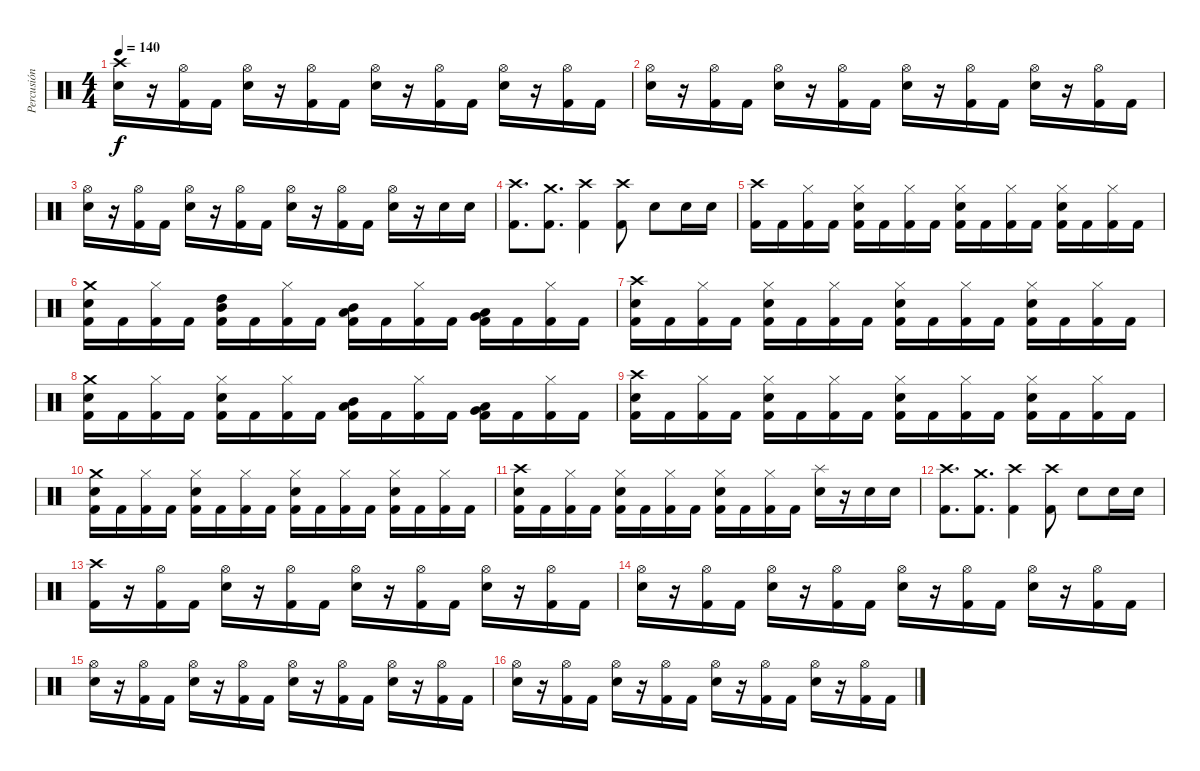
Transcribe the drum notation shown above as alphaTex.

\track ("Percusión" "Percusión") {instrument percussion}
\staff {score}
\articulation defaults
\ts (4 4)
\tempo 140
\clef neutral
\ks c
("Crash high (hit)" "Electric Snare (hit)").16{dy f} r.16 ("Hi-Hat (open)" "Kick (hit) 2").16 "Kick (hit) 2".16 ("Hi-Hat (open)" "Electric Snare (hit)").16 r.16 ("Hi-Hat (open)" "Kick (hit) 2").16 "Kick (hit) 2".16 ("Hi-Hat (open)" "Electric Snare (hit)").16 r.16 ("Hi-Hat (open)" "Kick (hit) 2").16 "Kick (hit) 2".16 ("Hi-Hat (open)" "Electric Snare (hit)").16 r.16 ("Hi-Hat (open)" "Kick (hit) 2").16 "Kick (hit) 2".16 |
("Hi-Hat (open)" "Electric Snare (hit)").16 r.16 ("Hi-Hat (open)" "Kick (hit) 2").16 "Kick (hit) 2".16 ("Hi-Hat (open)" "Electric Snare (hit)").16 r.16 ("Hi-Hat (open)" "Kick (hit) 2").16 "Kick (hit) 2".16 ("Hi-Hat (open)" "Electric Snare (hit)").16 r.16 ("Hi-Hat (open)" "Kick (hit) 2").16 "Kick (hit) 2".16 ("Hi-Hat (open)" "Electric Snare (hit)").16 r.16 ("Hi-Hat (open)" "Kick (hit) 2").16 "Kick (hit) 2".16 |
("Hi-Hat (open)" "Electric Snare (hit)").16 r.16 ("Hi-Hat (open)" "Kick (hit) 2").16 "Kick (hit) 2".16 ("Hi-Hat (open)" "Electric Snare (hit)").16 r.16 ("Hi-Hat (open)" "Kick (hit) 2").16 "Kick (hit) 2".16 ("Hi-Hat (open)" "Electric Snare (hit)").16 r.16 ("Hi-Hat (open)" "Kick (hit) 2").16 "Kick (hit) 2".16 ("Hi-Hat (open)" "Electric Snare (hit)").16 r.16 "Electric Snare (hit)".16 "Electric Snare (hit)".16 |
("Crash high (hit)" "Kick (hit) 2").8{d} ("Crash medium (hit)" "Kick (hit) 2").8{d} ("Crash high (hit)" "Kick (hit) 2").4 ("Crash high (hit)" "Kick (hit) 2").8 "Electric Snare (hit)".8 "Electric Snare (hit)".16 "Electric Snare (hit)".16 |
("Crash high (hit)" "Kick (hit) 2").16 "Kick (hit) 2".16 ("Hi-Hat (closed)" "Kick (hit) 2").16 "Kick (hit) 2".16 ("Hi-Hat (closed)" "Electric Snare (hit)" "Kick (hit) 2").16 "Kick (hit) 2".16 ("Hi-Hat (closed)" "Kick (hit) 2").16 "Kick (hit) 2".16 ("Hi-Hat (closed)" "Electric Snare (hit)" "Kick (hit) 2").16 "Kick (hit) 2".16 ("Hi-Hat (closed)" "Kick (hit) 2").16 "Kick (hit) 2".16 ("Hi-Hat (closed)" "Electric Snare (hit)" "Kick (hit) 2").16 "Kick (hit) 2".16 ("Hi-Hat (closed)" "Kick (hit) 2").16 "Kick (hit) 2".16 |
("Crash medium (hit)" "Electric Snare (hit)" "Kick (hit) 2").16 "Kick (hit) 2".16 ("Hi-Hat (closed)" "Kick (hit) 2").16 "Kick (hit) 2".16 ("High Tom (hit)" "Mid Tom (hit)" "Kick (hit) 2").16 "Kick (hit) 2".16 ("Hi-Hat (closed)" "Kick (hit) 2").16 "Kick (hit) 2".16 ("Mid Tom (hit)" "Low Tom (hit)" "Kick (hit) 2").16 "Kick (hit) 2".16 ("Hi-Hat (closed)" "Kick (hit) 2").16 "Kick (hit) 2".16 ("Very Low Tom (hit)" "Low Tom (hit)" "Kick (hit) 2").16 "Kick (hit) 2".16 ("Hi-Hat (closed)" "Kick (hit) 2").16 "Kick (hit) 2".16 |
("Crash high (hit)" "Electric Snare (hit)" "Kick (hit) 2").16 "Kick (hit) 2".16 ("Hi-Hat (closed)" "Kick (hit) 2").16 "Kick (hit) 2".16 ("Hi-Hat (closed)" "Electric Snare (hit)" "Kick (hit) 2").16 "Kick (hit) 2".16 ("Hi-Hat (closed)" "Kick (hit) 2").16 "Kick (hit) 2".16 ("Hi-Hat (closed)" "Electric Snare (hit)" "Kick (hit) 2").16 "Kick (hit) 2".16 ("Hi-Hat (closed)" "Kick (hit) 2").16 "Kick (hit) 2".16 ("Hi-Hat (closed)" "Electric Snare (hit)" "Kick (hit) 2").16 "Kick (hit) 2".16 ("Hi-Hat (closed)" "Kick (hit) 2").16 "Kick (hit) 2".16 |
("Crash medium (hit)" "Electric Snare (hit)" "Kick (hit) 2").16 "Kick (hit) 2".16 ("Hi-Hat (closed)" "Kick (hit) 2").16 "Kick (hit) 2".16 ("Hi-Hat (closed)" "Electric Snare (hit)" "Kick (hit) 2").16 "Kick (hit) 2".16 ("Hi-Hat (closed)" "Kick (hit) 2").16 "Kick (hit) 2".16 ("Mid Tom (hit)" "Low Tom (hit)" "Kick (hit) 2").16 "Kick (hit) 2".16 ("Hi-Hat (closed)" "Kick (hit) 2").16 "Kick (hit) 2".16 ("Very Low Tom (hit)" "Low Tom (hit)" "Kick (hit) 2").16 "Kick (hit) 2".16 ("Hi-Hat (closed)" "Kick (hit) 2").16 "Kick (hit) 2".16 |
("Crash high (hit)" "Electric Snare (hit)" "Kick (hit) 2").16 "Kick (hit) 2".16 ("Hi-Hat (closed)" "Kick (hit) 2").16 "Kick (hit) 2".16 ("Hi-Hat (closed)" "Electric Snare (hit)" "Kick (hit) 2").16 "Kick (hit) 2".16 ("Hi-Hat (closed)" "Kick (hit) 2").16 "Kick (hit) 2".16 ("Hi-Hat (closed)" "Electric Snare (hit)" "Kick (hit) 2").16 "Kick (hit) 2".16 ("Hi-Hat (closed)" "Kick (hit) 2").16 "Kick (hit) 2".16 ("Hi-Hat (closed)" "Electric Snare (hit)" "Kick (hit) 2").16 "Kick (hit) 2".16 ("Hi-Hat (closed)" "Kick (hit) 2").16 "Kick (hit) 2".16 |
("Crash medium (hit)" "Electric Snare (hit)" "Kick (hit) 2").16 "Kick (hit) 2".16 ("Hi-Hat (closed)" "Kick (hit) 2").16 "Kick (hit) 2".16 ("Hi-Hat (closed)" "Electric Snare (hit)" "Kick (hit) 2").16 "Kick (hit) 2".16 ("Hi-Hat (closed)" "Kick (hit) 2").16 "Kick (hit) 2".16 ("Hi-Hat (closed)" "Electric Snare (hit)" "Kick (hit) 2").16 "Kick (hit) 2".16 ("Hi-Hat (closed)" "Kick (hit) 2").16 "Kick (hit) 2".16 ("Hi-Hat (closed)" "Electric Snare (hit)" "Kick (hit) 2").16 "Kick (hit) 2".16 ("Hi-Hat (closed)" "Kick (hit) 2").16 "Kick (hit) 2".16 |
("Crash high (hit)" "Electric Snare (hit)" "Kick (hit) 2").16 "Kick (hit) 2".16 ("Hi-Hat (closed)" "Kick (hit) 2").16 "Kick (hit) 2".16 ("Hi-Hat (closed)" "Electric Snare (hit)" "Kick (hit) 2").16 "Kick (hit) 2".16 ("Hi-Hat (closed)" "Kick (hit) 2").16 "Kick (hit) 2".16 ("Hi-Hat (closed)" "Electric Snare (hit)" "Kick (hit) 2").16 "Kick (hit) 2".16 ("Hi-Hat (closed)" "Kick (hit) 2").16 "Kick (hit) 2".16 ("Splash (hit)" "Electric Snare (hit)").16 r.16 "Electric Snare (hit)".16 "Electric Snare (hit)".16 |
("Crash high (hit)" "Kick (hit) 2").8{d} ("Crash medium (hit)" "Kick (hit) 2").8{d} ("Crash high (hit)" "Kick (hit) 2").4 ("Crash high (hit)" "Kick (hit) 2").8 "Electric Snare (hit)".8 "Electric Snare (hit)".16 "Electric Snare (hit)".16 |
("Crash high (hit)" "Kick (hit) 2").16 r.16 ("Hi-Hat (open)" "Kick (hit) 2").16 "Kick (hit) 2".16 ("Hi-Hat (open)" "Electric Snare (hit)").16 r.16 ("Hi-Hat (open)" "Kick (hit) 2").16 "Kick (hit) 2".16 ("Hi-Hat (open)" "Electric Snare (hit)").16 r.16 ("Hi-Hat (open)" "Kick (hit) 2").16 "Kick (hit) 2".16 ("Hi-Hat (open)" "Electric Snare (hit)").16 r.16 ("Hi-Hat (open)" "Kick (hit) 2").16 "Kick (hit) 2".16 |
("Hi-Hat (open)" "Electric Snare (hit)").16 r.16 ("Hi-Hat (open)" "Kick (hit) 2").16 "Kick (hit) 2".16 ("Hi-Hat (open)" "Electric Snare (hit)").16 r.16 ("Hi-Hat (open)" "Kick (hit) 2").16 "Kick (hit) 2".16 ("Hi-Hat (open)" "Electric Snare (hit)").16 r.16 ("Hi-Hat (open)" "Kick (hit) 2").16 "Kick (hit) 2".16 ("Hi-Hat (open)" "Electric Snare (hit)").16 r.16 ("Hi-Hat (open)" "Kick (hit) 2").16 "Kick (hit) 2".16 |
("Hi-Hat (open)" "Electric Snare (hit)").16 r.16 ("Hi-Hat (open)" "Kick (hit) 2").16 "Kick (hit) 2".16 ("Hi-Hat (open)" "Electric Snare (hit)").16 r.16 ("Hi-Hat (open)" "Kick (hit) 2").16 "Kick (hit) 2".16 ("Hi-Hat (open)" "Electric Snare (hit)").16 r.16 ("Hi-Hat (open)" "Kick (hit) 2").16 "Kick (hit) 2".16 ("Hi-Hat (open)" "Electric Snare (hit)").16 r.16 ("Hi-Hat (open)" "Kick (hit) 2").16 "Kick (hit) 2".16 |
("Hi-Hat (open)" "Electric Snare (hit)").16 r.16 ("Hi-Hat (open)" "Kick (hit) 2").16 "Kick (hit) 2".16 ("Hi-Hat (open)" "Electric Snare (hit)").16 r.16 ("Hi-Hat (open)" "Kick (hit) 2").16 "Kick (hit) 2".16 ("Hi-Hat (open)" "Electric Snare (hit)").16 r.16 ("Hi-Hat (open)" "Kick (hit) 2").16 "Kick (hit) 2".16 ("Hi-Hat (open)" "Electric Snare (hit)").16 r.16 ("Hi-Hat (open)" "Kick (hit) 2").16 "Kick (hit) 2".16
